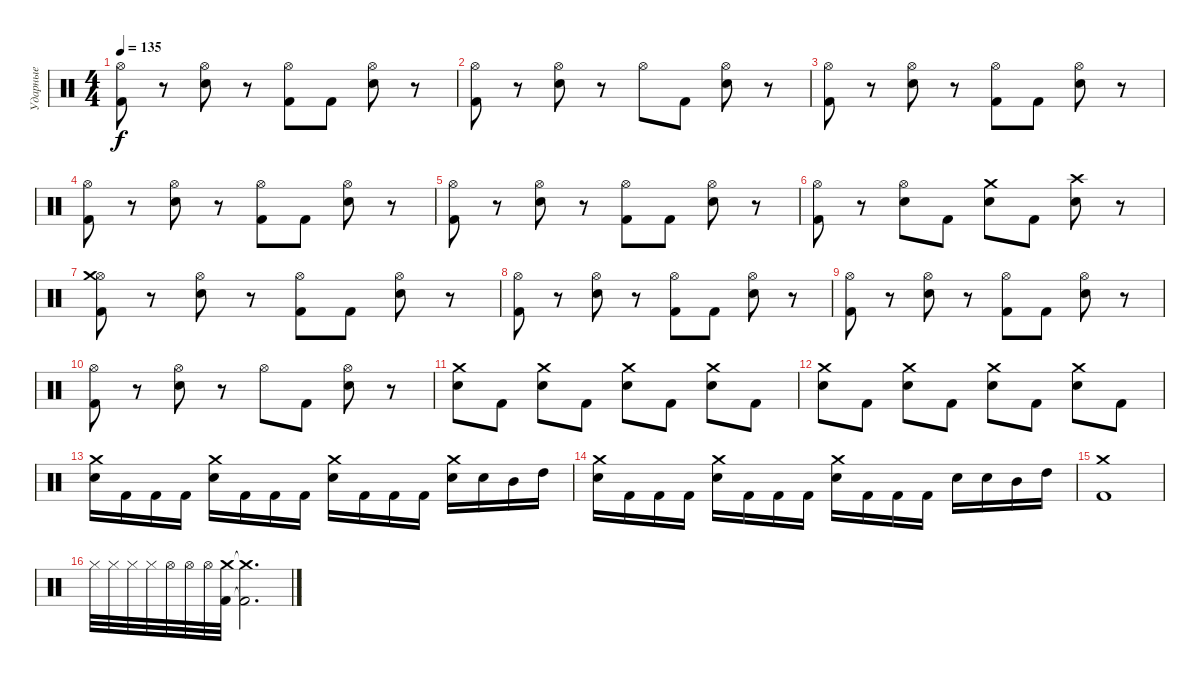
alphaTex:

\track ("Ударные" "Ударные") {instrument percussion}
\staff {score}
\articulation defaults
\ts (4 4)
\tempo 135
\clef neutral
\ks c
("Hi-Hat (open)" "Kick (hit) 2").8{dy f} r.8 ("Hi-Hat (open)" "Electric Snare (hit)").8 r.8 ("Hi-Hat (open)" "Kick (hit) 2").8 "Kick (hit) 2".8 ("Hi-Hat (open)" "Electric Snare (hit)").8 r.8 |
("Hi-Hat (open)" "Kick (hit) 2").8 r.8 ("Hi-Hat (open)" "Electric Snare (hit)").8 r.8 "Hi-Hat (open)".8 "Kick (hit) 2".8 ("Hi-Hat (open)" "Electric Snare (hit)").8 r.8 |
("Hi-Hat (open)" "Kick (hit) 2").8 r.8 ("Hi-Hat (open)" "Electric Snare (hit)").8 r.8 ("Hi-Hat (open)" "Kick (hit) 2").8 "Kick (hit) 2".8 ("Hi-Hat (open)" "Electric Snare (hit)").8 r.8 |
("Hi-Hat (open)" "Kick (hit) 2").8 r.8 ("Hi-Hat (open)" "Electric Snare (hit)").8 r.8 ("Hi-Hat (open)" "Kick (hit) 2").8 "Kick (hit) 2".8 ("Hi-Hat (open)" "Electric Snare (hit)").8 r.8 |
("Hi-Hat (open)" "Kick (hit) 2").8 r.8 ("Hi-Hat (open)" "Electric Snare (hit)").8 r.8 ("Hi-Hat (open)" "Kick (hit) 2").8 "Kick (hit) 2".8 ("Hi-Hat (open)" "Electric Snare (hit)").8 r.8 |
("Hi-Hat (open)" "Kick (hit) 2").8 r.8 ("Hi-Hat (open)" "Electric Snare (hit)").8 "Kick (hit) 2".8 ("Crash medium (hit)" "Electric Snare (hit)").8 "Kick (hit) 2".8 ("Crash high (hit)" "Electric Snare (hit)").8 r.8 |
("Hi-Hat (open)" "Crash medium (hit)" "Kick (hit) 2").8 r.8 ("Hi-Hat (open)" "Electric Snare (hit)").8 r.8 ("Hi-Hat (open)" "Kick (hit) 2").8 "Kick (hit) 2".8 ("Hi-Hat (open)" "Electric Snare (hit)").8 r.8 |
("Hi-Hat (open)" "Kick (hit) 2").8 r.8 ("Hi-Hat (open)" "Electric Snare (hit)").8 r.8 ("Hi-Hat (open)" "Kick (hit) 2").8 "Kick (hit) 2".8 ("Hi-Hat (open)" "Electric Snare (hit)").8 r.8 |
("Hi-Hat (open)" "Kick (hit) 2").8 r.8 ("Hi-Hat (open)" "Electric Snare (hit)").8 r.8 ("Hi-Hat (open)" "Kick (hit) 2").8 "Kick (hit) 2".8 ("Hi-Hat (open)" "Electric Snare (hit)").8 r.8 |
("Hi-Hat (open)" "Kick (hit) 2").8 r.8 ("Hi-Hat (open)" "Electric Snare (hit)").8 r.8 "Hi-Hat (open)".8 "Kick (hit) 2".8 ("Hi-Hat (open)" "Electric Snare (hit)").8 r.8 |
("Crash medium (hit)" "Electric Snare (hit)").8 "Kick (hit) 2".8 ("Crash medium (hit)" "Electric Snare (hit)").8 "Kick (hit) 2".8 ("Crash medium (hit)" "Electric Snare (hit)").8 "Kick (hit) 2".8 ("Crash medium (hit)" "Electric Snare (hit)").8 "Kick (hit) 2".8 |
("Crash medium (hit)" "Electric Snare (hit)").8 "Kick (hit) 2".8 ("Crash medium (hit)" "Electric Snare (hit)").8 "Kick (hit) 2".8 ("Crash medium (hit)" "Electric Snare (hit)").8 "Kick (hit) 2".8 ("Crash medium (hit)" "Electric Snare (hit)").8 "Kick (hit) 2".8 |
("Crash medium (hit)" "Electric Snare (hit)").16 "Kick (hit) 2".16 "Kick (hit) 2".16 "Kick (hit) 2".16 ("Crash medium (hit)" "Electric Snare (hit)").16 "Kick (hit) 2".16 "Kick (hit) 2".16 "Kick (hit) 2".16 ("Crash medium (hit)" "Electric Snare (hit)").16 "Kick (hit) 2".16 "Kick (hit) 2".16 "Kick (hit) 2".16 ("Crash medium (hit)" "Electric Snare (hit)").16 "Electric Snare (hit)".16 "Mid Tom (hit)".16 "High Tom (hit)".16 |
("Crash medium (hit)" "Electric Snare (hit)").16 "Kick (hit) 2".16 "Kick (hit) 2".16 "Kick (hit) 2".16 ("Crash medium (hit)" "Electric Snare (hit)").16 "Kick (hit) 2".16 "Kick (hit) 2".16 "Kick (hit) 2".16 ("Crash medium (hit)" "Electric Snare (hit)").16 "Kick (hit) 2".16 "Kick (hit) 2".16 "Kick (hit) 2".16 "Electric Snare (hit)".16 "Electric Snare (hit)".16 "Mid Tom (hit)".16 "High Tom (hit)".16 |
("Crash medium (hit)" "Kick (hit) 2").1 |
"Hi-Hat (closed)".32 "Hi-Hat (closed)".32 "Hi-Hat (closed)".32 "Hi-Hat (closed)".32 "Hi-Hat (open)".32 "Hi-Hat (open)".32 "Hi-Hat (open)".32 ("Crash medium (hit)" "Kick (hit) 2").32 ("Crash medium (hit)"{t} "Kick (hit) 2"{t}).2{d}
